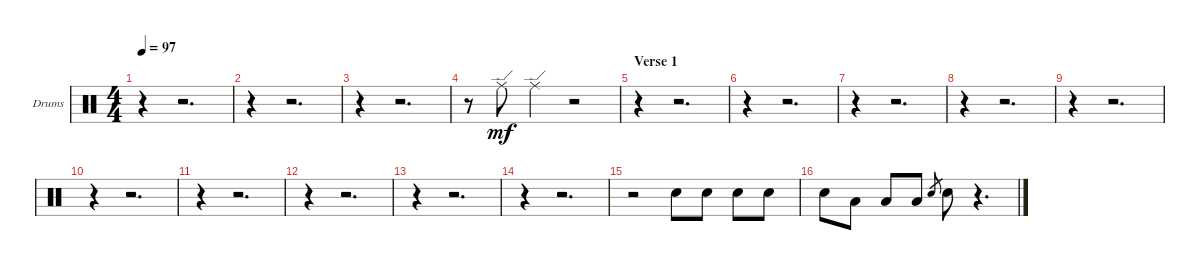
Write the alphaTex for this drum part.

\bracketExtendMode groupsimilarinstruments
\firstSystemTrackNameOrientation horizontal
\otherSystemsTrackNameOrientation horizontal
\track ("Drumkit" "Drums") {instrument percussion}
\staff {score}
\articulation defaults
\ts (4 4)
\tempo 97
\clef neutral
\ks c
r.4{dy mf} r.2{d} |
r.4 r.2{d} |
r.4 r.2{d} |
r.8 "Ride (edge)".8 "Ride (edge)".4 r.2 |
\section ("" "Verse 1")
r.4 r.2{d} |
r.4 r.2{d} |
r.4 r.2{d} |
r.4 r.2{d} |
r.4 r.2{d} |
r.4 r.2{d} |
r.4 r.2{d} |
r.4 r.2{d} |
r.4 r.2{d} |
r.4 r.2{d} |
r.2 "Snare (hit) 2".8 "Snare (hit) 2".8 "Snare (hit) 2".8 "Snare (hit) 2".8 |
"Snare (hit) 2".8 "Low Tom (hit)".8 "Low Tom (hit)".8 "Low Tom (hit)".8 "Snare (hit) 2".8{gr} "Snare (hit) 2".8 r.4{d}
